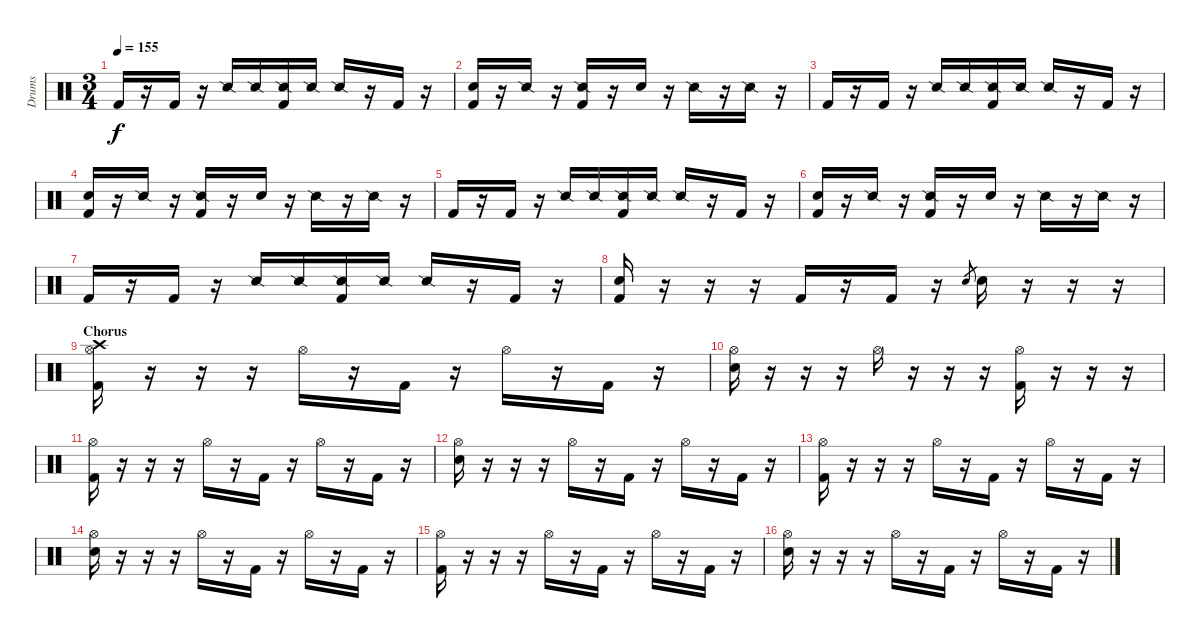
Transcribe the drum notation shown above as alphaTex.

\track ("Drums" "Drums") {instrument percussion}
\staff {score}
\articulation defaults
\ts (3 4)
\tempo 155
\clef neutral
\ks c "Kick (hit) 2".16{dy f}
r.16 "Kick (hit) 2".16 r.16 "Snare (side stick) 2".16 "Snare (side stick) 2".16 ("Snare (side stick) 2" "Kick (hit) 2").16 "Snare (side stick) 2".16 "Snare (side stick) 2".16 r.16 "Kick (hit) 2".16 r.16 |
("Snare (hit) 2" "Kick (hit) 2").16 r.16 "Snare (side stick) 2".16 r.16 ("Snare (side stick) 2" "Kick (hit) 2").16 r.16 "Snare (hit) 2".16 r.16 "Snare (side stick) 2".16 r.16 "Snare (side stick) 2".16 r.16 |
"Kick (hit) 2".16 r.16 "Kick (hit) 2".16 r.16 "Snare (side stick) 2".16 "Snare (side stick) 2".16 ("Snare (side stick) 2" "Kick (hit) 2").16 "Snare (side stick) 2".16 "Snare (side stick) 2".16 r.16 "Kick (hit) 2".16 r.16 |
("Snare (hit) 2" "Kick (hit) 2").16 r.16 "Snare (side stick) 2".16 r.16 ("Snare (side stick) 2" "Kick (hit) 2").16 r.16 "Snare (hit) 2".16 r.16 "Snare (side stick) 2".16 r.16 "Snare (side stick) 2".16 r.16 |
"Kick (hit) 2".16 r.16 "Kick (hit) 2".16 r.16 "Snare (side stick) 2".16 "Snare (side stick) 2".16 ("Snare (side stick) 2" "Kick (hit) 2").16 "Snare (side stick) 2".16 "Snare (side stick) 2".16 r.16 "Kick (hit) 2".16 r.16 |
("Snare (hit) 2" "Kick (hit) 2").16 r.16 "Snare (side stick) 2".16 r.16 ("Snare (side stick) 2" "Kick (hit) 2").16 r.16 "Snare (hit) 2".16 r.16 "Snare (side stick) 2".16 r.16 "Snare (side stick) 2".16 r.16 |
"Kick (hit) 2".16 r.16 "Kick (hit) 2".16 r.16 "Snare (side stick) 2".16 "Snare (side stick) 2".16 ("Snare (side stick) 2" "Kick (hit) 2").16 "Snare (side stick) 2".16 "Snare (side stick) 2".16 r.16 "Kick (hit) 2".16 r.16 |
("Snare (hit) 2" "Kick (hit) 2").16 r.16 r.16 r.16 "Kick (hit) 2".16 r.16 "Kick (hit) 2".16 r.16 "Snare (hit) 2".8{gr} "Snare (hit) 2".16 r.16 r.16 r.16 |
\section ("" "Chorus")
("Crash high (hit)" "Hi-Hat (open)" "Kick (hit) 2").16 r.16 r.16 r.16 "Hi-Hat (open)".16 r.16 "Kick (hit) 2".16 r.16 "Hi-Hat (open)".16 r.16 "Kick (hit) 2".16 r.16 |
("Hi-Hat (open)" "Snare (hit) 2").16 r.16 r.16 r.16 "Hi-Hat (open)".16 r.16 r.16 r.16 ("Hi-Hat (open)" "Kick (hit) 2").16 r.16 r.16 r.16 |
("Hi-Hat (open)" "Kick (hit) 2").16 r.16 r.16 r.16 "Hi-Hat (open)".16 r.16 "Kick (hit) 2".16 r.16 "Hi-Hat (open)".16 r.16 "Kick (hit) 2".16 r.16 |
("Hi-Hat (open)" "Snare (hit) 2").16 r.16 r.16 r.16 "Hi-Hat (open)".16 r.16 "Kick (hit) 2".16 r.16 "Hi-Hat (open)".16 r.16 "Kick (hit) 2".16 r.16 |
("Hi-Hat (open)" "Kick (hit) 2").16 r.16 r.16 r.16 "Hi-Hat (open)".16 r.16 "Kick (hit) 2".16 r.16 "Hi-Hat (open)".16 r.16 "Kick (hit) 2".16 r.16 |
("Hi-Hat (open)" "Snare (hit) 2").16 r.16 r.16 r.16 "Hi-Hat (open)".16 r.16 "Kick (hit) 2".16 r.16 "Hi-Hat (open)".16 r.16 "Kick (hit) 2".16 r.16 |
("Hi-Hat (open)" "Kick (hit) 2").16 r.16 r.16 r.16 "Hi-Hat (open)".16 r.16 "Kick (hit) 2".16 r.16 "Hi-Hat (open)".16 r.16 "Kick (hit) 2".16 r.16 |
("Hi-Hat (open)" "Snare (hit) 2").16 r.16 r.16 r.16 "Hi-Hat (open)".16 r.16 "Kick (hit) 2".16 r.16 "Hi-Hat (open)".16 r.16 "Kick (hit) 2".16 r.16
